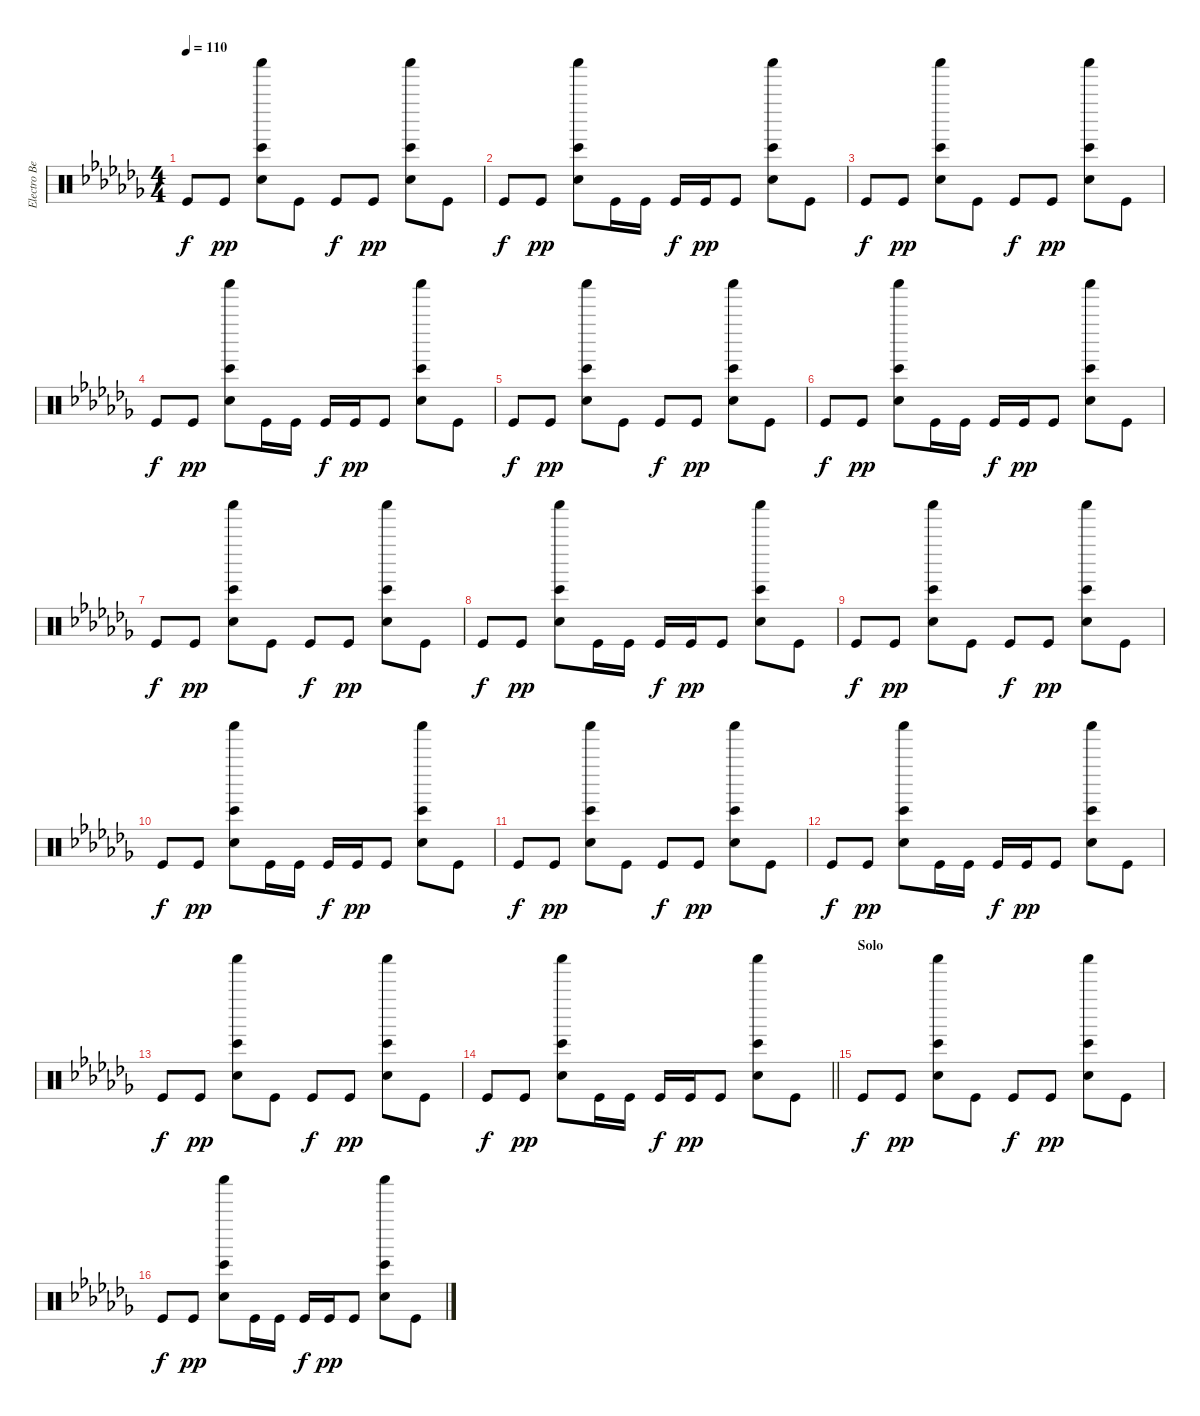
\track ("Electro Beat - Joe Hahn" "Electro Be") {instrument percussion}
\staff {score}
\articulation defaults
\ts (4 4)
\tempo 110
\clef neutral
\ks abminor "Kick (hit)".8{dy f} "Kick (hit)".8{dy pp}
("Snare (hit) 2" "Bongo High (hit)" "Shaker (hit)").8 "Kick (hit)".8 "Kick (hit)".8{dy f} "Kick (hit)".8{dy pp} ("Snare (hit) 2" "Bongo High (hit)" "Shaker (hit)").8 "Kick (hit)".8 |
"Kick (hit)".8{dy f} "Kick (hit)".8{dy pp} ("Snare (hit) 2" "Bongo High (hit)" "Shaker (hit)").8 "Kick (hit)".16 "Kick (hit)".16 "Kick (hit)".16{dy f} "Kick (hit)".16{dy pp} "Kick (hit)".8 ("Snare (hit) 2" "Bongo High (hit)" "Shaker (hit)").8 "Kick (hit)".8 |
"Kick (hit)".8{dy f} "Kick (hit)".8{dy pp} ("Snare (hit) 2" "Bongo High (hit)" "Shaker (hit)").8 "Kick (hit)".8 "Kick (hit)".8{dy f} "Kick (hit)".8{dy pp} ("Snare (hit) 2" "Bongo High (hit)" "Shaker (hit)").8 "Kick (hit)".8 |
"Kick (hit)".8{dy f} "Kick (hit)".8{dy pp} ("Snare (hit) 2" "Bongo High (hit)" "Shaker (hit)").8 "Kick (hit)".16 "Kick (hit)".16 "Kick (hit)".16{dy f} "Kick (hit)".16{dy pp} "Kick (hit)".8 ("Snare (hit) 2" "Bongo High (hit)" "Shaker (hit)").8 "Kick (hit)".8 |
"Kick (hit)".8{dy f} "Kick (hit)".8{dy pp} ("Snare (hit) 2" "Bongo High (hit)" "Shaker (hit)").8 "Kick (hit)".8 "Kick (hit)".8{dy f} "Kick (hit)".8{dy pp} ("Snare (hit) 2" "Bongo High (hit)" "Shaker (hit)").8 "Kick (hit)".8 |
"Kick (hit)".8{dy f} "Kick (hit)".8{dy pp} ("Snare (hit) 2" "Bongo High (hit)" "Shaker (hit)").8 "Kick (hit)".16 "Kick (hit)".16 "Kick (hit)".16{dy f} "Kick (hit)".16{dy pp} "Kick (hit)".8 ("Snare (hit) 2" "Bongo High (hit)" "Shaker (hit)").8 "Kick (hit)".8 |
"Kick (hit)".8{dy f} "Kick (hit)".8{dy pp} ("Snare (hit) 2" "Bongo High (hit)" "Shaker (hit)").8 "Kick (hit)".8 "Kick (hit)".8{dy f} "Kick (hit)".8{dy pp} ("Snare (hit) 2" "Bongo High (hit)" "Shaker (hit)").8 "Kick (hit)".8 |
"Kick (hit)".8{dy f} "Kick (hit)".8{dy pp} ("Snare (hit) 2" "Bongo High (hit)" "Shaker (hit)").8 "Kick (hit)".16 "Kick (hit)".16 "Kick (hit)".16{dy f} "Kick (hit)".16{dy pp} "Kick (hit)".8 ("Snare (hit) 2" "Bongo High (hit)" "Shaker (hit)").8 "Kick (hit)".8 |
"Kick (hit)".8{dy f} "Kick (hit)".8{dy pp} ("Snare (hit) 2" "Bongo High (hit)" "Shaker (hit)").8 "Kick (hit)".8 "Kick (hit)".8{dy f} "Kick (hit)".8{dy pp} ("Snare (hit) 2" "Bongo High (hit)" "Shaker (hit)").8 "Kick (hit)".8 |
"Kick (hit)".8{dy f} "Kick (hit)".8{dy pp} ("Snare (hit) 2" "Bongo High (hit)" "Shaker (hit)").8 "Kick (hit)".16 "Kick (hit)".16 "Kick (hit)".16{dy f} "Kick (hit)".16{dy pp} "Kick (hit)".8 ("Snare (hit) 2" "Bongo High (hit)" "Shaker (hit)").8 "Kick (hit)".8 |
"Kick (hit)".8{dy f} "Kick (hit)".8{dy pp} ("Snare (hit) 2" "Bongo High (hit)" "Shaker (hit)").8 "Kick (hit)".8 "Kick (hit)".8{dy f} "Kick (hit)".8{dy pp} ("Snare (hit) 2" "Bongo High (hit)" "Shaker (hit)").8 "Kick (hit)".8 |
"Kick (hit)".8{dy f} "Kick (hit)".8{dy pp} ("Snare (hit) 2" "Bongo High (hit)" "Shaker (hit)").8 "Kick (hit)".16 "Kick (hit)".16 "Kick (hit)".16{dy f} "Kick (hit)".16{dy pp} "Kick (hit)".8 ("Snare (hit) 2" "Bongo High (hit)" "Shaker (hit)").8 "Kick (hit)".8 |
"Kick (hit)".8{dy f} "Kick (hit)".8{dy pp} ("Snare (hit) 2" "Bongo High (hit)" "Shaker (hit)").8 "Kick (hit)".8 "Kick (hit)".8{dy f} "Kick (hit)".8{dy pp} ("Snare (hit) 2" "Bongo High (hit)" "Shaker (hit)").8 "Kick (hit)".8 |
\barLineRight lightlight "Kick (hit)".8{dy f} "Kick (hit)".8{dy pp}
("Snare (hit) 2" "Bongo High (hit)" "Shaker (hit)").8 "Kick (hit)".16 "Kick (hit)".16 "Kick (hit)".16{dy f} "Kick (hit)".16{dy pp} "Kick (hit)".8 ("Snare (hit) 2" "Bongo High (hit)" "Shaker (hit)").8 "Kick (hit)".8 |
\section ("" "Solo")
"Kick (hit)".8{dy f} "Kick (hit)".8{dy pp} ("Snare (hit) 2" "Bongo High (hit)" "Shaker (hit)").8 "Kick (hit)".8 "Kick (hit)".8{dy f} "Kick (hit)".8{dy pp} ("Snare (hit) 2" "Bongo High (hit)" "Shaker (hit)").8 "Kick (hit)".8 |
"Kick (hit)".8{dy f} "Kick (hit)".8{dy pp} ("Snare (hit) 2" "Bongo High (hit)" "Shaker (hit)").8 "Kick (hit)".16 "Kick (hit)".16 "Kick (hit)".16{dy f} "Kick (hit)".16{dy pp} "Kick (hit)".8 ("Snare (hit) 2" "Bongo High (hit)" "Shaker (hit)").8 "Kick (hit)".8
